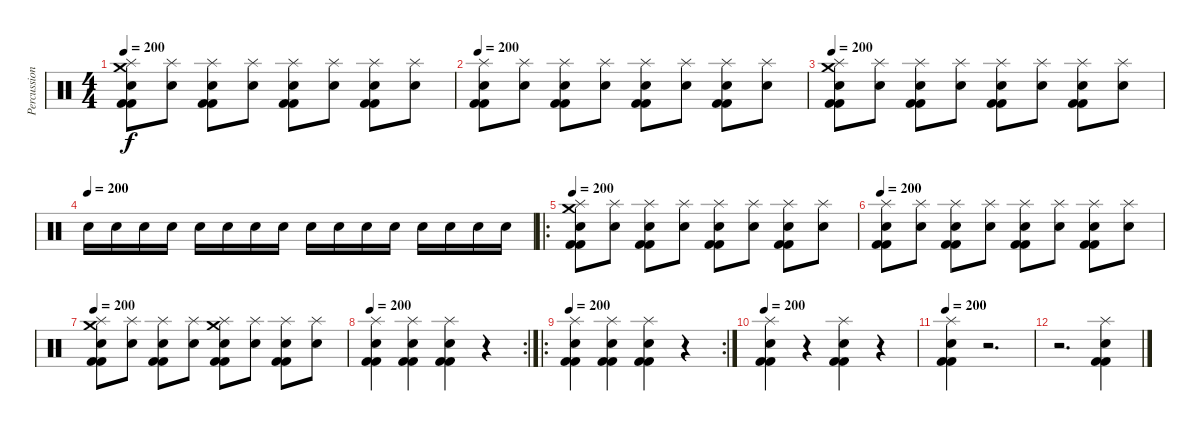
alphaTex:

\track ("Percussions" "Percussion") {instrument percussion}
\staff {score}
\articulation defaults
\ts (4 4)
\tempo 200
\clef neutral
\ks c
("Kick (hit) 2" "Kick (hit) 2" "Snare (hit) 2" "Crash medium (hit)" "Splash (hit)").8{dy f} ("Snare (hit) 2" "Splash (hit)").8 ("Kick (hit) 2" "Kick (hit) 2" "Snare (hit) 2" "Splash (hit)").8 ("Snare (hit) 2" "Splash (hit)").8 ("Kick (hit) 2" "Kick (hit) 2" "Snare (hit) 2" "Splash (hit)").8 ("Snare (hit) 2" "Splash (hit)").8 ("Kick (hit) 2" "Kick (hit) 2" "Snare (hit) 2" "Splash (hit)").8 ("Snare (hit) 2" "Splash (hit)").8 |
\tempo 200
("Kick (hit) 2" "Kick (hit) 2" "Snare (hit) 2" "Splash (hit)").8 ("Snare (hit) 2" "Splash (hit)").8 ("Kick (hit) 2" "Kick (hit) 2" "Snare (hit) 2" "Splash (hit)").8 ("Snare (hit) 2" "Splash (hit)").8 ("Kick (hit) 2" "Kick (hit) 2" "Snare (hit) 2" "Splash (hit)").8 ("Snare (hit) 2" "Splash (hit)").8 ("Kick (hit) 2" "Kick (hit) 2" "Snare (hit) 2" "Splash (hit)").8 ("Snare (hit) 2" "Splash (hit)").8 |
\tempo 200
("Kick (hit) 2" "Kick (hit) 2" "Snare (hit) 2" "Crash medium (hit)" "Splash (hit)").8 ("Snare (hit) 2" "Splash (hit)").8 ("Kick (hit) 2" "Kick (hit) 2" "Snare (hit) 2" "Splash (hit)").8 ("Snare (hit) 2" "Splash (hit)").8 ("Kick (hit) 2" "Kick (hit) 2" "Snare (hit) 2" "Splash (hit)").8 ("Snare (hit) 2" "Splash (hit)").8 ("Kick (hit) 2" "Kick (hit) 2" "Snare (hit) 2" "Splash (hit)").8 ("Snare (hit) 2" "Splash (hit)").8 |
\tempo (200)
"Snare (hit) 2".16 "Snare (hit) 2".16 "Snare (hit) 2".16 "Snare (hit) 2".16 "Snare (hit) 2".16 "Snare (hit) 2".16 "Snare (hit) 2".16 "Snare (hit) 2".16 "Snare (hit) 2".16 "Snare (hit) 2".16 "Snare (hit) 2".16 "Snare (hit) 2".16 "Snare (hit) 2".16 "Snare (hit) 2".16 "Snare (hit) 2".16 "Snare (hit) 2".16 |
\ro
\tempo 200
("Kick (hit) 2" "Kick (hit) 2" "Snare (hit) 2" "Crash medium (hit)" "Splash (hit)").8 ("Snare (hit) 2" "Splash (hit)").8 ("Kick (hit) 2" "Kick (hit) 2" "Snare (hit) 2" "Splash (hit)").8 ("Snare (hit) 2" "Splash (hit)").8 ("Kick (hit) 2" "Kick (hit) 2" "Snare (hit) 2" "Splash (hit)").8 ("Snare (hit) 2" "Splash (hit)").8 ("Kick (hit) 2" "Kick (hit) 2" "Snare (hit) 2" "Splash (hit)").8 ("Snare (hit) 2" "Splash (hit)").8 |
\tempo 200
("Kick (hit) 2" "Kick (hit) 2" "Snare (hit) 2" "Splash (hit)").8 ("Snare (hit) 2" "Splash (hit)").8 ("Kick (hit) 2" "Kick (hit) 2" "Snare (hit) 2" "Splash (hit)").8 ("Snare (hit) 2" "Splash (hit)").8 ("Kick (hit) 2" "Kick (hit) 2" "Snare (hit) 2" "Splash (hit)").8 ("Snare (hit) 2" "Splash (hit)").8 ("Kick (hit) 2" "Kick (hit) 2" "Snare (hit) 2" "Splash (hit)").8 ("Snare (hit) 2" "Splash (hit)").8 |
\tempo 200
("Kick (hit) 2" "Kick (hit) 2" "Snare (hit) 2" "Crash medium (hit)" "Splash (hit)").8 ("Snare (hit) 2" "Splash (hit)").8 ("Kick (hit) 2" "Kick (hit) 2" "Snare (hit) 2" "Splash (hit)").8 ("Snare (hit) 2" "Splash (hit)").8 ("Kick (hit) 2" "Kick (hit) 2" "Snare (hit) 2" "Crash medium (hit)" "Splash (hit)").8 ("Snare (hit) 2" "Splash (hit)").8 ("Kick (hit) 2" "Kick (hit) 2" "Snare (hit) 2" "Splash (hit)").8 ("Snare (hit) 2" "Splash (hit)").8 |
\rc 2
\tempo 200
("Kick (hit) 2" "Kick (hit) 2" "Snare (hit) 2" "Splash (hit)").4 ("Kick (hit) 2" "Kick (hit) 2" "Snare (hit) 2" "Splash (hit)").4 ("Kick (hit) 2" "Kick (hit) 2" "Snare (hit) 2" "Splash (hit)").4 r.4 |
\ro
\rc 2
\tempo 200
("Kick (hit) 2" "Kick (hit) 2" "Snare (hit) 2" "Splash (hit)").4 ("Kick (hit) 2" "Kick (hit) 2" "Snare (hit) 2" "Splash (hit)").4 ("Kick (hit) 2" "Kick (hit) 2" "Snare (hit) 2" "Splash (hit)").4 r.4 |
\tempo 200
("Kick (hit) 2" "Kick (hit) 2" "Snare (hit) 2" "Splash (hit)").4 r.4 ("Kick (hit) 2" "Kick (hit) 2" "Snare (hit) 2" "Splash (hit)").4 r.4 |
\tempo 200
("Kick (hit) 2" "Kick (hit) 2" "Snare (hit) 2" "Splash (hit)").4 r.2{d} |
r.2{d} ("Kick (hit) 2" "Kick (hit) 2" "Snare (hit) 2" "Splash (hit)").4
